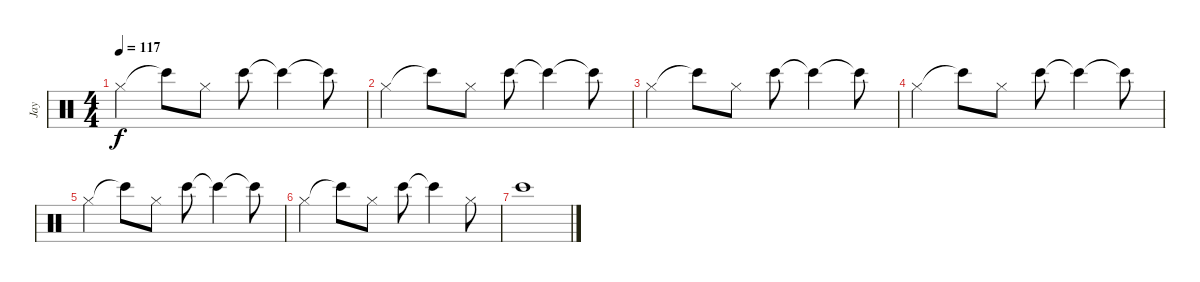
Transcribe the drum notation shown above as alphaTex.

\track ("Jay" "Jay") {instrument percussion}
\staff {score}
\articulation defaults
\ts (4 4)
\tempo 117
\clef neutral
\ks c "Hi-Hat (closed)".4{dy f} "Bongo High (hit)"{t}.8 "Hi-Hat (closed)".8 "Bongo High (hit)".8 "Bongo High (hit)"{t}.4 "Bongo High (hit)"{t}.8
|
"Hi-Hat (closed)".4 "Bongo High (hit)"{t}.8 "Hi-Hat (closed)".8 "Bongo High (hit)".8 "Bongo High (hit)"{t}.4 "Bongo High (hit)"{t}.8 |
"Hi-Hat (closed)".4 "Bongo High (hit)"{t}.8 "Hi-Hat (closed)".8 "Bongo High (hit)".8 "Bongo High (hit)"{t}.4 "Bongo High (hit)"{t}.8 |
"Hi-Hat (closed)".4 "Bongo High (hit)"{t}.8 "Hi-Hat (closed)".8 "Bongo High (hit)".8 "Bongo High (hit)"{t}.4 "Bongo High (hit)"{t}.8 |
"Hi-Hat (closed)".4 "Bongo High (hit)"{t}.8 "Hi-Hat (closed)".8 "Bongo High (hit)".8 "Bongo High (hit)"{t}.4 "Bongo High (hit)"{t}.8 |
"Hi-Hat (closed)".4 "Bongo High (hit)"{t}.8 "Hi-Hat (closed)".8 "Bongo High (hit)".8 "Bongo High (hit)"{t}.4 "Hi-Hat (closed)".8 |
"Bongo High (hit)".1
